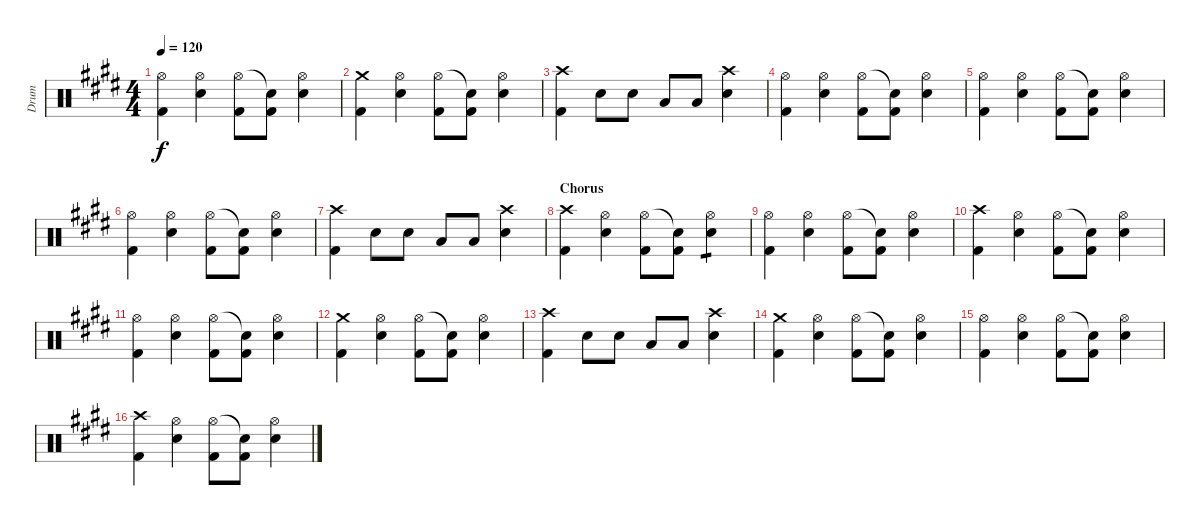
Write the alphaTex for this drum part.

\track ("Drum" "Drum") {instrument percussion}
\staff {score}
\articulation defaults
\ts (4 4)
\tempo 120
\clef neutral
\ks e
("Hi-Hat (open)" "Kick (hit) 2").4{dy f} ("Hi-Hat (open)" "Electric Snare (hit)").4 ("Hi-Hat (open)" "Kick (hit) 2").8 ("Snare (hit)"{t} "Kick (hit) 2").8 ("Hi-Hat (open)" "Electric Snare (hit)").4 |
("Crash medium (hit)" "Kick (hit) 2").4 ("Hi-Hat (open)" "Electric Snare (hit)").4 ("Hi-Hat (open)" "Kick (hit) 2").8 ("Snare (hit)"{t} "Kick (hit) 2").8 ("Hi-Hat (open)" "Electric Snare (hit)").4 |
("Crash high (hit)" "Kick (hit) 2").4 "Electric Snare (hit)".8 "Electric Snare (hit)".8 "Low Tom (hit)".8 "Low Tom (hit)".8 ("Crash high (hit)" "Electric Snare (hit)").4 |
("Hi-Hat (open)" "Kick (hit) 2").4 ("Hi-Hat (open)" "Electric Snare (hit)").4 ("Hi-Hat (open)" "Kick (hit) 2").8 ("Snare (hit)"{t} "Kick (hit) 2").8 ("Hi-Hat (open)" "Electric Snare (hit)").4 |
("Hi-Hat (open)" "Kick (hit) 2").4 ("Hi-Hat (open)" "Electric Snare (hit)").4 ("Hi-Hat (open)" "Kick (hit) 2").8 ("Snare (hit)"{t} "Kick (hit) 2").8 ("Hi-Hat (open)" "Electric Snare (hit)").4 |
("Hi-Hat (open)" "Kick (hit) 2").4 ("Hi-Hat (open)" "Electric Snare (hit)").4 ("Hi-Hat (open)" "Kick (hit) 2").8 ("Snare (hit)"{t} "Kick (hit) 2").8 ("Hi-Hat (open)" "Electric Snare (hit)").4 |
("Crash high (hit)" "Kick (hit) 2").4 "Electric Snare (hit)".8 "Electric Snare (hit)".8 "Low Tom (hit)".8 "Low Tom (hit)".8 ("Crash high (hit)" "Electric Snare (hit)").4 |
\section ("" "Chorus")
("Crash high (hit)" "Kick (hit) 2").4 ("Hi-Hat (open)" "Electric Snare (hit)").4 ("Hi-Hat (open)" "Kick (hit) 2").8 ("Snare (hit)"{t} "Kick (hit) 2").8 ("Hi-Hat (open)" "Electric Snare (hit)").4{tp 1} |
("Hi-Hat (open)" "Kick (hit) 2").4 ("Hi-Hat (open)" "Electric Snare (hit)").4 ("Hi-Hat (open)" "Kick (hit) 2").8 ("Snare (hit)"{t} "Kick (hit) 2").8 ("Hi-Hat (open)" "Electric Snare (hit)").4 |
("Crash high (hit)" "Kick (hit) 2").4 ("Hi-Hat (open)" "Electric Snare (hit)").4 ("Hi-Hat (open)" "Kick (hit) 2").8 ("Snare (hit)"{t} "Kick (hit) 2").8 ("Hi-Hat (open)" "Electric Snare (hit)").4 |
("Hi-Hat (open)" "Kick (hit) 2").4 ("Hi-Hat (open)" "Electric Snare (hit)").4 ("Hi-Hat (open)" "Kick (hit) 2").8 ("Snare (hit)"{t} "Kick (hit) 2").8 ("Hi-Hat (open)" "Electric Snare (hit)").4 |
("Crash medium (hit)" "Kick (hit) 2").4 ("Hi-Hat (open)" "Electric Snare (hit)").4 ("Hi-Hat (open)" "Kick (hit) 2").8 ("Snare (hit)"{t} "Kick (hit) 2").8 ("Hi-Hat (open)" "Electric Snare (hit)").4 |
("Crash high (hit)" "Kick (hit) 2").4 "Electric Snare (hit)".8 "Electric Snare (hit)".8 "Low Tom (hit)".8 "Low Tom (hit)".8 ("Crash high (hit)" "Electric Snare (hit)").4 |
("Crash medium (hit)" "Kick (hit) 2").4 ("Hi-Hat (open)" "Electric Snare (hit)").4 ("Hi-Hat (open)" "Kick (hit) 2").8 ("Snare (hit)"{t} "Kick (hit) 2").8 ("Hi-Hat (open)" "Electric Snare (hit)").4 |
("Hi-Hat (open)" "Kick (hit) 2").4 ("Hi-Hat (open)" "Electric Snare (hit)").4 ("Hi-Hat (open)" "Kick (hit) 2").8 ("Snare (hit)"{t} "Kick (hit) 2").8 ("Hi-Hat (open)" "Electric Snare (hit)").4 |
("Crash high (hit)" "Kick (hit) 2").4 ("Hi-Hat (open)" "Electric Snare (hit)").4 ("Hi-Hat (open)" "Kick (hit) 2").8 ("Snare (hit)"{t} "Kick (hit) 2").8 ("Hi-Hat (open)" "Electric Snare (hit)").4
